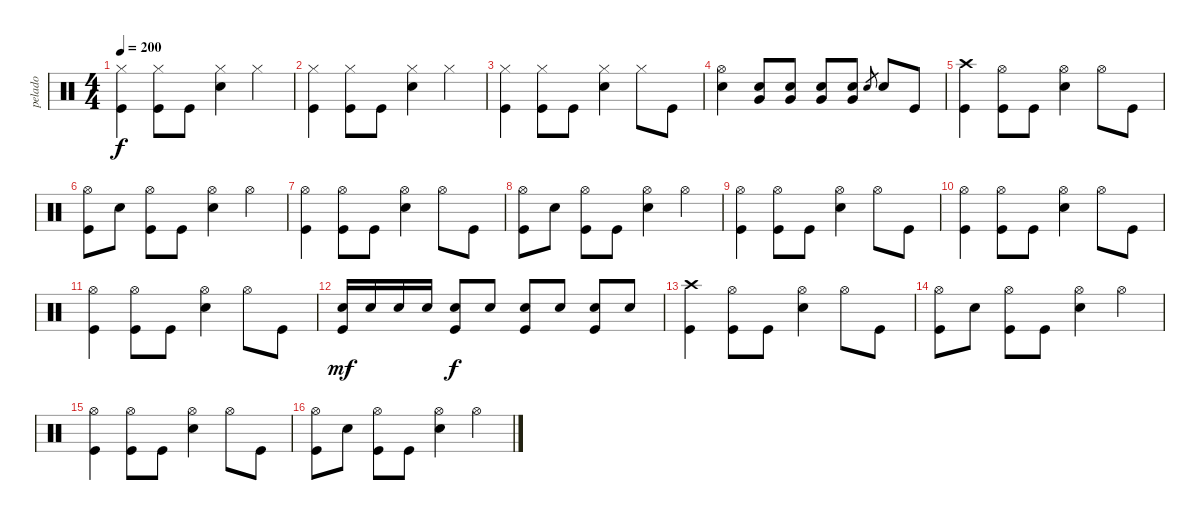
\track ("pelado" "pelado") {instrument percussion}
\staff {score}
\articulation defaults
\ts (4 4)
\tempo 200
\clef neutral
\ks c
("Hi-Hat (closed)" "Kick (hit)").4{dy f} ("Hi-Hat (closed)" "Kick (hit)").8 "Kick (hit)".8 ("Hi-Hat (closed)" "Electric Snare (hit)").4 "Hi-Hat (closed)".4 |
("Hi-Hat (closed)" "Kick (hit)").4 ("Hi-Hat (closed)" "Kick (hit)").8 "Kick (hit)".8 ("Hi-Hat (closed)" "Electric Snare (hit)").4 "Hi-Hat (closed)".4 |
("Hi-Hat (closed)" "Kick (hit)").4 ("Hi-Hat (closed)" "Kick (hit)").8 "Kick (hit)".8 ("Hi-Hat (closed)" "Electric Snare (hit)").4 "Hi-Hat (closed)".8 "Kick (hit)".8 |
("Hi-Hat (open)" "Electric Snare (hit)").4 ("Very Low Tom (hit)" "Electric Snare (hit)").8 ("Very Low Tom (hit)" "Electric Snare (hit)").8 ("Very Low Tom (hit)" "Electric Snare (hit)").8 ("Very Low Tom (hit)" "Electric Snare (hit)").8 "Electric Snare (hit)".8{gr} "Electric Snare (hit)".8 "Kick (hit)".8 |
("Crash high (hit)" "Kick (hit)").4 ("Hi-Hat (open)" "Kick (hit)").8 "Kick (hit)".8 ("Hi-Hat (open)" "Electric Snare (hit)").4 "Hi-Hat (open)".8 "Kick (hit)".8 |
("Hi-Hat (open)" "Kick (hit)").8 "Electric Snare (hit)".8 ("Hi-Hat (open)" "Kick (hit)").8 "Kick (hit)".8 ("Hi-Hat (open)" "Electric Snare (hit)").4 "Hi-Hat (open)".4 |
("Hi-Hat (open)" "Kick (hit)").4 ("Hi-Hat (open)" "Kick (hit)").8 "Kick (hit)".8 ("Hi-Hat (open)" "Electric Snare (hit)").4 "Hi-Hat (open)".8 "Kick (hit)".8 |
("Hi-Hat (open)" "Kick (hit)").8 "Electric Snare (hit)".8 ("Hi-Hat (open)" "Kick (hit)").8 "Kick (hit)".8 ("Hi-Hat (open)" "Electric Snare (hit)").4 "Hi-Hat (open)".4 |
("Hi-Hat (open)" "Kick (hit)").4 ("Hi-Hat (open)" "Kick (hit)").8 "Kick (hit)".8 ("Hi-Hat (open)" "Electric Snare (hit)").4 "Hi-Hat (open)".8 "Kick (hit)".8 |
("Hi-Hat (open)" "Kick (hit)").4 ("Hi-Hat (open)" "Kick (hit)").8 "Kick (hit)".8 ("Hi-Hat (open)" "Electric Snare (hit)").4 "Hi-Hat (open)".8 "Kick (hit)".8 |
("Hi-Hat (open)" "Kick (hit)").4 ("Hi-Hat (open)" "Kick (hit)").8 "Kick (hit)".8 ("Hi-Hat (open)" "Electric Snare (hit)").4 "Hi-Hat (open)".8 "Kick (hit)".8 |
("Electric Snare (hit)" "Kick (hit)").16{dy mf} "Electric Snare (hit)".16 "Electric Snare (hit)".16 "Electric Snare (hit)".16 ("Electric Snare (hit)" "Kick (hit)").8{dy f} "Electric Snare (hit)".8 ("Electric Snare (hit)" "Kick (hit)").8 "Electric Snare (hit)".8 ("Electric Snare (hit)" "Kick (hit)").8 "Electric Snare (hit)".8 |
("Crash high (hit)" "Kick (hit)").4 ("Hi-Hat (open)" "Kick (hit)").8 "Kick (hit)".8 ("Hi-Hat (open)" "Electric Snare (hit)").4 "Hi-Hat (open)".8 "Kick (hit)".8 |
("Hi-Hat (open)" "Kick (hit)").8 "Electric Snare (hit)".8 ("Hi-Hat (open)" "Kick (hit)").8 "Kick (hit)".8 ("Hi-Hat (open)" "Electric Snare (hit)").4 "Hi-Hat (open)".4 |
("Hi-Hat (open)" "Kick (hit)").4 ("Hi-Hat (open)" "Kick (hit)").8 "Kick (hit)".8 ("Hi-Hat (open)" "Electric Snare (hit)").4 "Hi-Hat (open)".8 "Kick (hit)".8 |
("Hi-Hat (open)" "Kick (hit)").8 "Electric Snare (hit)".8 ("Hi-Hat (open)" "Kick (hit)").8 "Kick (hit)".8 ("Hi-Hat (open)" "Electric Snare (hit)").4 "Hi-Hat (open)".4
